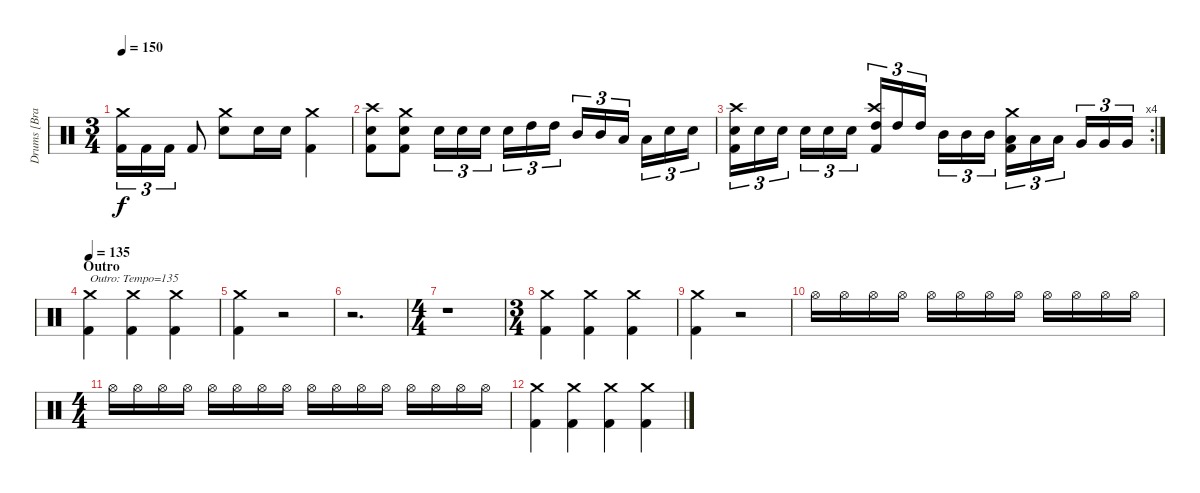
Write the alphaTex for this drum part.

\track ("Drums [Bran Dailor]" "Drums [Bra") {instrument percussion}
\staff {score}
\articulation defaults
\ts (3 4)
\tempo 150
\clef neutral
\ks c
("Crash medium (hit)" "Kick (hit) 2").16{tu (3 2) dy f} "Kick (hit) 2".16{tu (3 2)} "Kick (hit) 2".16{tu (3 2)} "Kick (hit) 2".8 ("Crash medium (hit)" "Electric Snare (hit)").8 "Electric Snare (hit)".16 "Electric Snare (hit)".16 ("Crash medium (hit)" "Kick (hit) 2").4 |
("Crash high (hit)" "Electric Snare (hit)" "Kick (hit) 2").8 ("Crash medium (hit)" "Electric Snare (hit)" "Kick (hit) 2").8 "Electric Snare (hit)".16{tu (3 2)} "Electric Snare (hit)".16{tu (3 2)} "Electric Snare (hit)".16{tu (3 2)} "Electric Snare (hit)".16{tu (3 2)} "High Tom (hit)".16{tu (3 2)} "High Tom (hit)".16{tu (3 2)} "Mid Tom (hit)".16{tu (3 2)} "Mid Tom (hit)".16{tu (3 2)} "Low Tom (hit)".16{tu (3 2)} "Low Tom (hit)".16{tu (3 2)} "Electric Snare (hit)".16{tu (3 2)} "Electric Snare (hit)".16{tu (3 2)} |
\rc 4
("Crash high (hit)" "Electric Snare (hit)" "Kick (hit) 2").16{tu (3 2)} "Electric Snare (hit)".16{tu (3 2)} "Electric Snare (hit)".16{tu (3 2)} "Electric Snare (hit)".16{tu (3 2)} "Electric Snare (hit)".16{tu (3 2)} "Electric Snare (hit)".16{tu (3 2)} ("Crash high (hit)" "High Tom (hit)" "Kick (hit) 2").16{tu (3 2)} "High Tom (hit)".16{tu (3 2)} "High Tom (hit)".16{tu (3 2)} "Mid Tom (hit)".16{tu (3 2)} "Mid Tom (hit)".16{tu (3 2)} "Mid Tom (hit)".16{tu (3 2)} ("Crash medium (hit)" "Low Tom (hit)" "Kick (hit) 2").16{tu (3 2)} "Low Tom (hit)".16{tu (3 2)} "Low Tom (hit)".16{tu (3 2)} "Very Low Tom (hit)".16{tu (3 2)} "Very Low Tom (hit)".16{tu (3 2)} "Very Low Tom (hit)".16{tu (3 2)} |
\section ("" "Outro")
\tempo 135
("Crash medium (hit)" "Kick (hit) 2").4{txt "Outro: Tempo=135"} ("Crash medium (hit)" "Kick (hit) 2").4 ("Crash medium (hit)" "Kick (hit) 2").4 |
("Crash medium (hit)" "Kick (hit) 2").4{volume 0} r.2 |
r.2{d} |
\ts (4 4)
r.1 |
\ts (3 4)
("Crash medium (hit)" "Kick (hit) 2").4{volume 14} ("Crash medium (hit)" "Kick (hit) 2").4 ("Crash medium (hit)" "Kick (hit) 2").4 |
("Crash medium (hit)" "Kick (hit) 2").4 r.2 |
"Hi-Hat (open)".16{volume 0} "Hi-Hat (open)".16 "Hi-Hat (open)".16 "Hi-Hat (open)".16 "Hi-Hat (open)".16{volume 14} "Hi-Hat (open)".16 "Hi-Hat (open)".16 "Hi-Hat (open)".16 "Hi-Hat (open)".16 "Hi-Hat (open)".16 "Hi-Hat (open)".16 "Hi-Hat (open)".16 |
\ts (4 4)
"Hi-Hat (open)".16 "Hi-Hat (open)".16 "Hi-Hat (open)".16 "Hi-Hat (open)".16 "Hi-Hat (open)".16 "Hi-Hat (open)".16 "Hi-Hat (open)".16 "Hi-Hat (open)".16 "Hi-Hat (open)".16 "Hi-Hat (open)".16 "Hi-Hat (open)".16 "Hi-Hat (open)".16 "Hi-Hat (open)".16 "Hi-Hat (open)".16 "Hi-Hat (open)".16 "Hi-Hat (open)".16 |
("Crash medium (hit)" "Kick (hit) 2").4 ("Crash medium (hit)" "Kick (hit) 2").4 ("Crash medium (hit)" "Kick (hit) 2").4 ("Crash medium (hit)" "Kick (hit) 2").4
